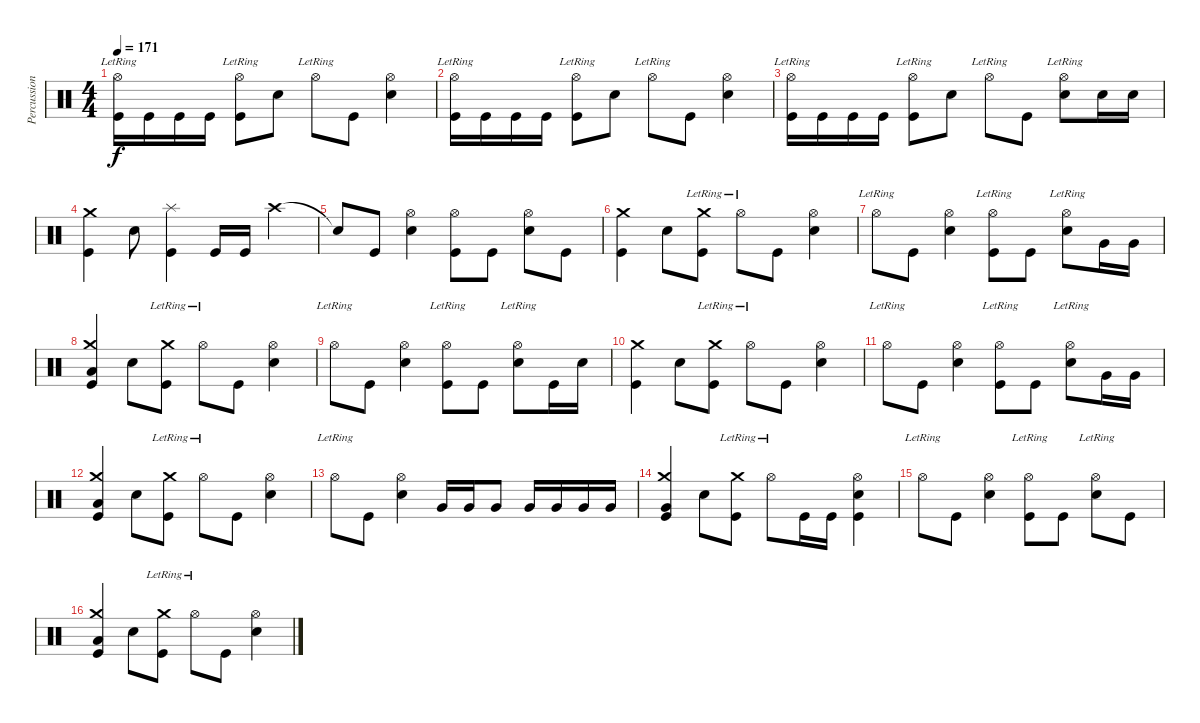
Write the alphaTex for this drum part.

\track ("Percussions" "Percussion") {instrument percussion}
\staff {score}
\articulation defaults
\ts (4 4)
\tempo 171
\clef neutral
\ks c
("Hi-Hat (open)"{lr} "Kick (hit)").16{dy f} "Kick (hit)".16 "Kick (hit)".16 "Kick (hit)".16 ("Hi-Hat (open)"{lr} "Kick (hit)").8 "Snare (hit) 2".8 "Hi-Hat (open)"{lr}.8 "Kick (hit)".8 ("Hi-Hat (open)" "Snare (hit) 2").4 |
("Hi-Hat (open)"{lr} "Kick (hit)").16 "Kick (hit)".16 "Kick (hit)".16 "Kick (hit)".16 ("Hi-Hat (open)"{lr} "Kick (hit)").8 "Snare (hit) 2".8 "Hi-Hat (open)"{lr}.8 "Kick (hit)".8 ("Hi-Hat (open)" "Snare (hit) 2").4 |
("Hi-Hat (open)"{lr} "Kick (hit)").16 "Kick (hit)".16 "Kick (hit)".16 "Kick (hit)".16 ("Hi-Hat (open)"{lr} "Kick (hit)").8 "Snare (hit) 2".8 "Hi-Hat (open)"{lr}.8 "Kick (hit)".8 ("Hi-Hat (open)"{lr} "Snare (hit) 2").8 "Snare (hit) 2".16 "Snare (hit) 2".16 |
("Crash medium (hit)" "Kick (hit)").4 "Snare (hit) 2".8 ("Splash (hit)" "Kick (hit)").4 "Kick (hit)".16 "Kick (hit)".16 "Crash high (hit)".4 |
"Snare (hit)"{t}.8 "Kick (hit)".8 ("Hi-Hat (open)" "Snare (hit) 2").4 ("Hi-Hat (open)" "Kick (hit)").8 "Kick (hit)".8 ("Hi-Hat (open)" "Snare (hit) 2").8 "Kick (hit)".8 |
("Crash medium (hit)" "Kick (hit)").4 "Snare (hit) 2".8 ("Crash medium (hit)"{lr} "Kick (hit)").8 "Hi-Hat (open)"{lr}.8 "Kick (hit)".8 ("Hi-Hat (open)" "Snare (hit) 2").4 |
"Hi-Hat (open)"{lr}.8 "Kick (hit)".8 ("Hi-Hat (open)" "Snare (hit) 2").4 ("Hi-Hat (open)"{lr} "Kick (hit)").8 "Kick (hit)".8 ("Hi-Hat (open)"{lr} "Snare (hit) 2").8 "Very Low Tom (hit)".16 "Very Low Tom (hit)".16 |
("Crash medium (hit)" "Low Floor Tom (hit)" "Kick (hit)").4 "Snare (hit) 2".8 ("Crash medium (hit)"{lr} "Kick (hit)").8 "Hi-Hat (open)"{lr}.8 "Kick (hit)".8 ("Hi-Hat (open)" "Snare (hit) 2").4 |
"Hi-Hat (open)"{lr}.8 "Kick (hit)".8 ("Hi-Hat (open)" "Snare (hit) 2").4 ("Hi-Hat (open)"{lr} "Kick (hit)").8 "Kick (hit)".8 ("Hi-Hat (open)"{lr} "Snare (hit) 2").8 "Kick (hit)".16 "Snare (hit) 2".16 |
("Crash medium (hit)" "Kick (hit)").4 "Snare (hit) 2".8 ("Crash medium (hit)"{lr} "Kick (hit)").8 "Hi-Hat (open)"{lr}.8 "Kick (hit)".8 ("Hi-Hat (open)" "Snare (hit) 2").4 |
"Hi-Hat (open)"{lr}.8 "Kick (hit)".8 ("Hi-Hat (open)" "Snare (hit) 2").4 ("Hi-Hat (open)"{lr} "Kick (hit)").8 "Kick (hit)".8 ("Hi-Hat (open)"{lr} "Snare (hit) 2").8 "Very Low Tom (hit)".16 "Very Low Tom (hit)".16 |
("Crash medium (hit)" "Low Floor Tom (hit)" "Kick (hit)").4 "Snare (hit) 2".8 ("Crash medium (hit)"{lr} "Kick (hit)").8 "Hi-Hat (open)"{lr}.8 "Kick (hit)".8 ("Hi-Hat (open)" "Snare (hit) 2").4 |
"Hi-Hat (open)"{lr}.8 "Kick (hit)".8 ("Hi-Hat (open)" "Snare (hit) 2").4 "Very Low Tom (hit)".16 "Very Low Tom (hit)".16 "Very Low Tom (hit)".8 "Very Low Tom (hit)".16 "Very Low Tom (hit)".16 "Very Low Tom (hit)".16 "Very Low Tom (hit)".16 |
("Crash medium (hit)" "Very Low Tom (hit)" "Kick (hit)").4 "Snare (hit) 2".8 ("Crash medium (hit)"{lr} "Kick (hit)").8 "Hi-Hat (open)"{lr}.8 "Kick (hit)".16 "Kick (hit)".16 ("Hi-Hat (open)" "Snare (hit) 2" "Kick (hit)").4 |
"Hi-Hat (open)"{lr}.8 "Kick (hit)".8 ("Hi-Hat (open)" "Snare (hit) 2").4 ("Hi-Hat (open)"{lr} "Kick (hit)").8 "Kick (hit)".8 ("Hi-Hat (open)"{lr} "Snare (hit) 2").8 "Kick (hit)".8 |
("Crash medium (hit)" "Low Floor Tom (hit)" "Kick (hit)").4 "Snare (hit) 2".8 ("Crash medium (hit)"{lr} "Kick (hit)").8 "Hi-Hat (open)"{lr}.8 "Kick (hit)".8 ("Hi-Hat (open)" "Snare (hit) 2").4
